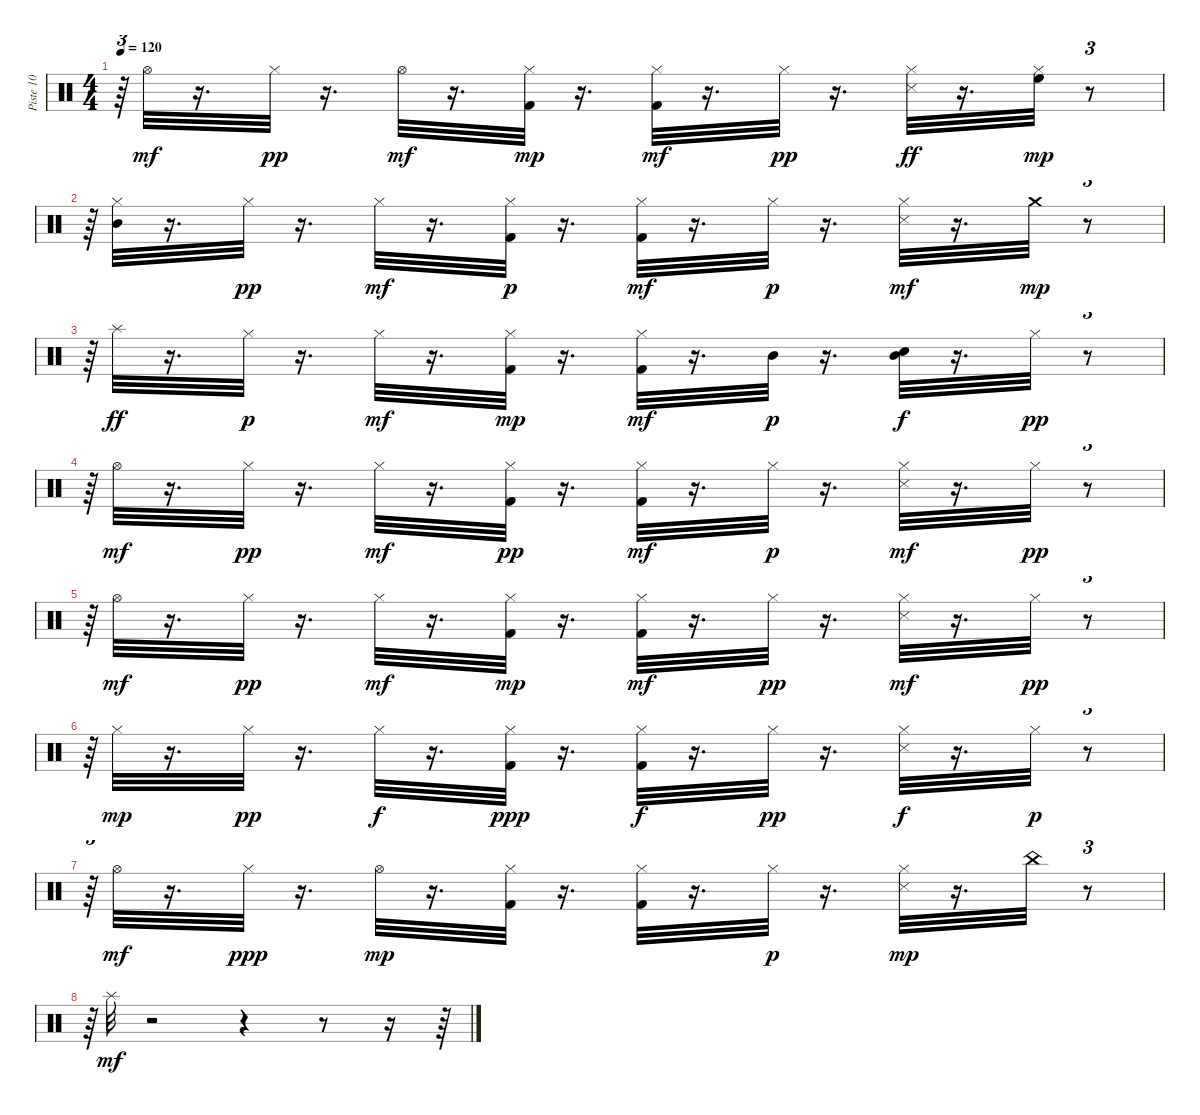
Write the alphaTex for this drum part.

\track ("Piste 10" "Piste 10") {instrument percussion}
\staff {score}
\articulation defaults
\ts (4 4)
\tempo 120
\clef neutral
\ks c
r.64{tu (3 2) dy p} "Hi-Hat (open)".32{dy mf} r.16{d} "Hi-Hat (closed)".32{dy pp} r.16{d} "Hi-Hat (open)".32{dy mf} r.16{d} ("Hi-Hat (closed)" "Kick (hit) 2").32{dy mp} r.16{d} ("Hi-Hat (closed)" "Kick (hit) 2").32{dy mf} r.16{d} "Hi-Hat (closed)".32{dy pp} r.16{d} ("Hi-Hat (closed)" "Snare (side stick) 3").32{dy ff} r.16{d} ("Hi-Hat (closed)" "High Floor Tom (hit)").32{dy mp} r.8{tu (3 2)} |
r.64{tu (3 2)} ("Mid Tom (hit)" "Hi-Hat (closed)").32 r.16{d} "Hi-Hat (closed)".32{dy pp} r.16{d} "Hi-Hat (closed)".32{dy mf} r.16{d} ("Kick (hit) 2" "Hi-Hat (closed)").32{dy p} r.16{d} ("Hi-Hat (closed)" "Kick (hit) 2").32{dy mf} r.16{d} "Hi-Hat (closed)".32{dy p} r.16{d} ("Hi-Hat (closed)" "Snare (side stick) 3").32{dy mf} r.16{d} "Crash medium (hit)".32{dy mp} r.8{tu (3 2)} |
r.64{tu (3 2)} "Splash (hit)".32{dy ff} r.16{d} "Hi-Hat (closed)".32{dy p} r.16{d} "Hi-Hat (closed)".32{dy mf} r.16{d} ("Hi-Hat (closed)" "Kick (hit) 2").32{dy mp} r.16{d} ("Hi-Hat (closed)" "Kick (hit) 2").32{dy mf} r.16{d} "Mid Tom (hit)".32{dy p} r.16{d} ("Electric Snare (hit)" "Mid Tom (hit)").32{dy f} r.16{d} "Hi-Hat (closed)".32{dy pp} r.8{tu (3 2)} |
r.64{tu (3 2)} "Hi-Hat (open)".32{dy mf} r.16{d} "Hi-Hat (closed)".32{dy pp} r.16{d} "Hi-Hat (closed)".32{dy mf} r.16{d} ("Kick (hit) 2" "Hi-Hat (closed)").32{dy pp} r.16{d} ("Hi-Hat (closed)" "Kick (hit) 2").32{dy mf} r.16{d} "Hi-Hat (closed)".32{dy p} r.16{d} ("Hi-Hat (closed)" "Snare (side stick) 3").32{dy mf} r.16{d} "Hi-Hat (closed)".32{dy pp} r.8{tu (3 2)} |
r.64{tu (3 2)} "Hi-Hat (open)".32{dy mf} r.16{d} "Hi-Hat (closed)".32{dy pp} r.16{d} "Hi-Hat (closed)".32{dy mf} r.16{d} ("Hi-Hat (closed)" "Kick (hit) 2").32{dy mp} r.16{d} ("Hi-Hat (closed)" "Kick (hit) 2").32{dy mf} r.16{d} "Hi-Hat (closed)".32{dy pp} r.16{d} ("Hi-Hat (closed)" "Snare (side stick) 3").32{dy mf} r.16{d} "Hi-Hat (closed)".32{dy pp} r.8{tu (3 2)} |
r.64{tu (3 2)} "Hi-Hat (closed)".32{dy mp} r.16{d} "Hi-Hat (closed)".32{dy pp} r.16{d} "Hi-Hat (closed)".32{dy f} r.16{d} ("Kick (hit) 2" "Hi-Hat (closed)").32{dy ppp} r.16{d} ("Kick (hit) 2" "Hi-Hat (closed)").32{dy f} r.16{d} "Hi-Hat (closed)".32{dy pp} r.16{d} ("Snare (side stick) 3" "Hi-Hat (closed)").32{dy f} r.16{d} "Hi-Hat (closed)".32{dy p} r.8{tu (3 2)} |
r.64{tu (3 2)} "Hi-Hat (open)".32{dy mf} r.16{d} "Hi-Hat (closed)".32{dy ppp} r.16{d} "Hi-Hat (open)".32{dy mp} r.16{d} ("Hi-Hat (closed)" "Kick (hit) 2").32 r.16{d} ("Kick (hit) 2" "Hi-Hat (closed)").32 r.16{d} "Hi-Hat (closed)".32{dy p} r.16{d} ("Hi-Hat (closed)" "Snare (side stick) 3").32{dy mp} r.16{d} "China (hit)".32 r.8{tu (3 2)} |
r.64{tu (3 2)} "Splash (hit)".32{dy mf} r.2 r.4 r.8 r.16 r.64
